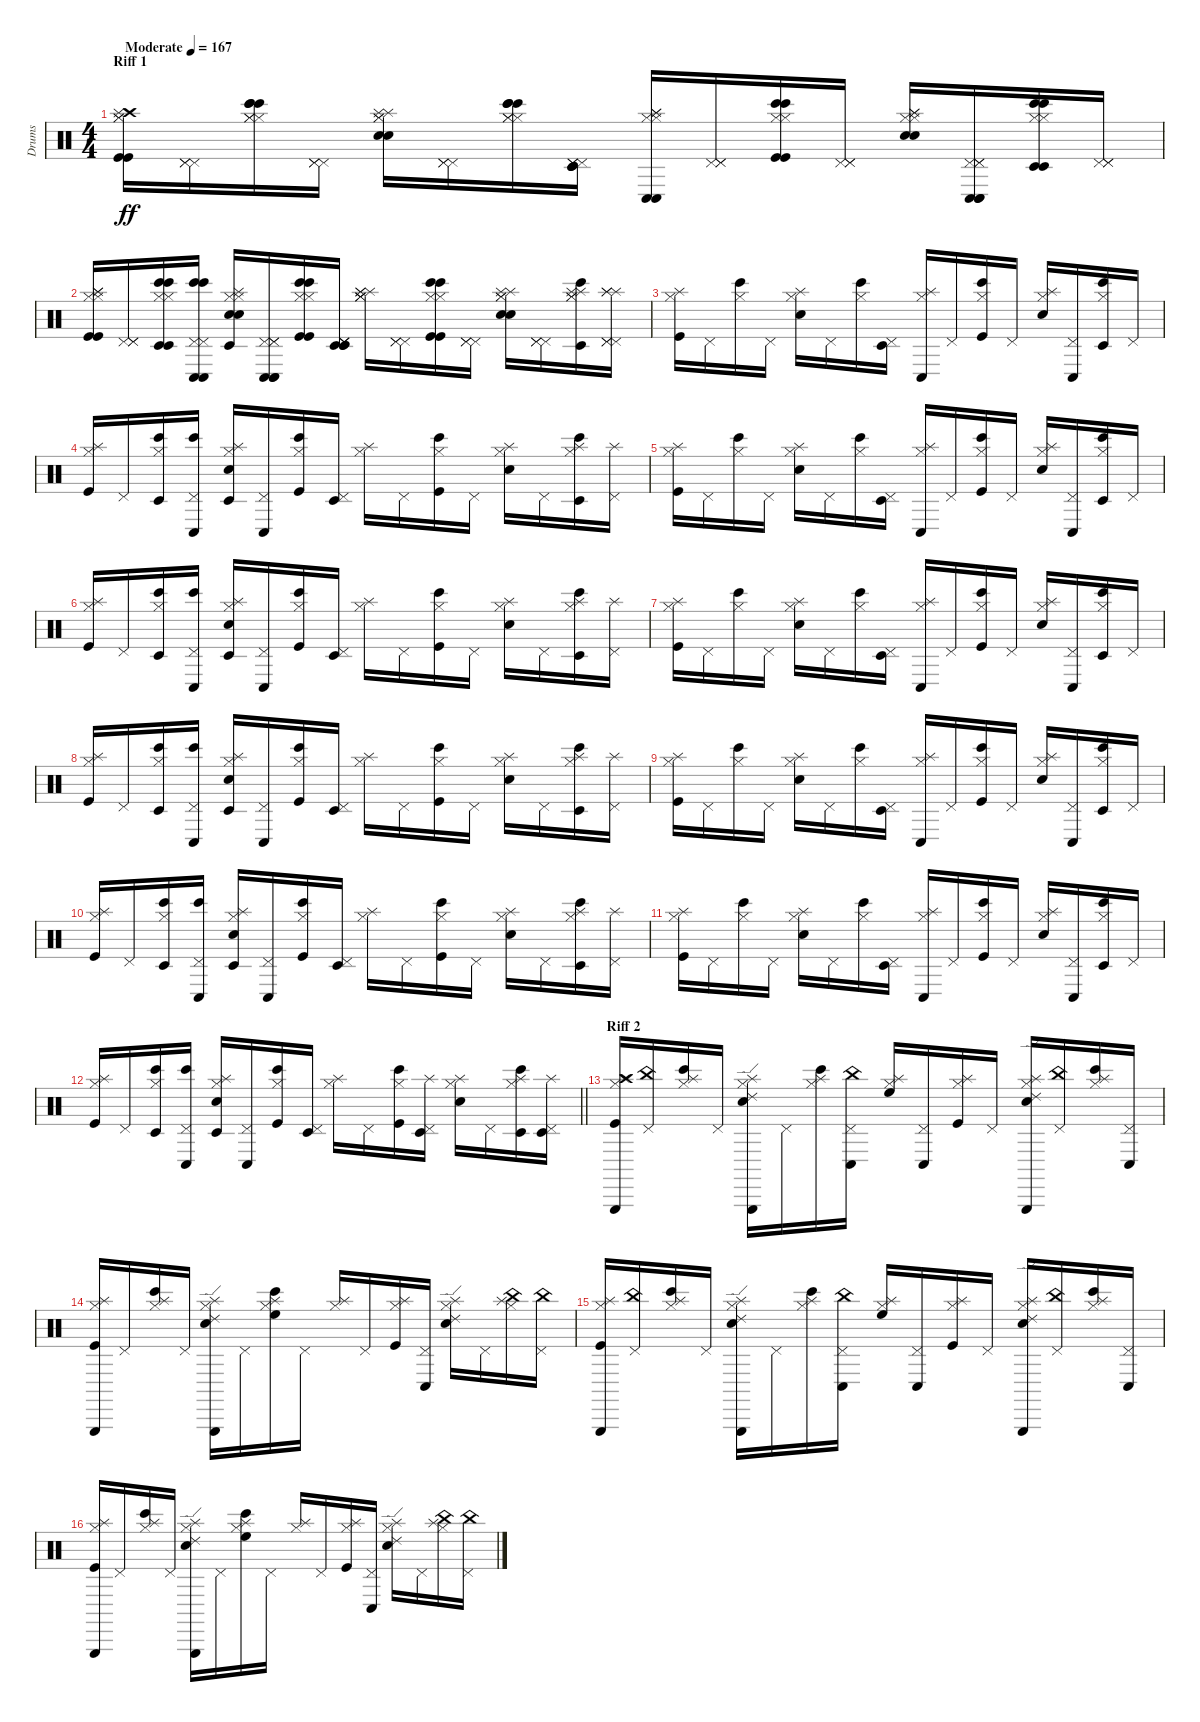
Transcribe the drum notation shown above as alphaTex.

\track ("Drums" "Drums") {instrument percussion}
\staff {score}
\articulation defaults
\ts (4 4)
\section ("" "Riff 1")
\tempo (167 "Moderate")
\clef neutral
\ks c
("Kick (hit)" "Hi-Hat (closed)" "Crash high (hit)" "Splash (hit)" "Kick (hit)" "Hi-Hat (closed)").16{dy ff} ("Pedal Hi-Hat (hit)" "Pedal Hi-Hat (hit)" "Pedal Hi-Hat (hit)").16 ("Hi-Hat (closed)" "Bongo High (hit)" "Hi-Hat (closed)" "Bongo High (hit)" "Hi-Hat (closed)" "Bongo High (hit)").16 ("Pedal Hi-Hat (hit)" "Pedal Hi-Hat (hit)" "Pedal Hi-Hat (hit)").16 ("Electric Snare (hit)" "Hi-Hat (closed)" "Splash (hit)" "Electric Snare (hit)" "Hi-Hat (closed)" "Splash (hit)").16 ("Pedal Hi-Hat (hit)" "Pedal Hi-Hat (hit)" "Pedal Hi-Hat (hit)").16 ("Hi-Hat (closed)" "Bongo High (hit)" "Hi-Hat (closed)" "Bongo High (hit)" "Hi-Hat (closed)" "Bongo High (hit)").16 ("Pedal Hi-Hat (hit)" "Timbale low (hit)" "Pedal Hi-Hat (hit)" "Timbale low (hit)" "Pedal Hi-Hat (hit)" "Timbale low (hit)").16 ("Hi-Hat (closed)" "Splash (hit)" "Conga low (hit)" "Hi-Hat (closed)" "Splash (hit)" "Conga low (hit)").16 ("Pedal Hi-Hat (hit)" "Pedal Hi-Hat (hit)" "Pedal Hi-Hat (hit)").16 ("Kick (hit)" "Hi-Hat (closed)" "Bongo High (hit)" "Kick (hit)" "Hi-Hat (closed)" "Bongo High (hit)").16 ("Pedal Hi-Hat (hit)" "Pedal Hi-Hat (hit)" "Pedal Hi-Hat (hit)").16 ("Electric Snare (hit)" "Hi-Hat (closed)" "Splash (hit)" "Electric Snare (hit)" "Hi-Hat (closed)" "Splash (hit)").16 ("Pedal Hi-Hat (hit)" "Conga low (hit)" "Pedal Hi-Hat (hit)" "Conga low (hit)" "Pedal Hi-Hat (hit)" "Conga low (hit)").16 ("Hi-Hat (closed)" "Bongo High (hit)" "Timbale low (hit)" "Hi-Hat (closed)" "Bongo High (hit)" "Timbale low (hit)").16 ("Pedal Hi-Hat (hit)" "Pedal Hi-Hat (hit)" "Pedal Hi-Hat (hit)").16 |
("Kick (hit)" "Hi-Hat (closed)" "Splash (hit)" "Kick (hit)" "Hi-Hat (closed)" "Splash (hit)").16 ("Pedal Hi-Hat (hit)" "Pedal Hi-Hat (hit)" "Pedal Hi-Hat (hit)").16 ("Hi-Hat (closed)" "Bongo High (hit)" "Timbale low (hit)" "Hi-Hat (closed)" "Bongo High (hit)" "Timbale low (hit)").16 ("Pedal Hi-Hat (hit)" "Bongo High (hit)" "Conga low (hit)" "Pedal Hi-Hat (hit)" "Bongo High (hit)" "Conga low (hit)").16 ("Electric Snare (hit)" "Hi-Hat (closed)" "Splash (hit)" "Timbale low (hit)" "Electric Snare (hit)" "Hi-Hat (closed)").16 ("Pedal Hi-Hat (hit)" "Conga low (hit)" "Pedal Hi-Hat (hit)" "Conga low (hit)" "Pedal Hi-Hat (hit)" "Conga low (hit)").16 ("Kick (hit)" "Hi-Hat (closed)" "Bongo High (hit)" "Kick (hit)" "Hi-Hat (closed)" "Bongo High (hit)").16 ("Pedal Hi-Hat (hit)" "Timbale low (hit)" "Pedal Hi-Hat (hit)" "Timbale low (hit)" "Pedal Hi-Hat (hit)" "Timbale low (hit)").16 ("Hi-Hat (closed)" "Splash (hit)" "Hi-Hat (closed)" "Splash (hit)" "Hi-Hat (closed)" "Splash (hit)").16 ("Pedal Hi-Hat (hit)" "Pedal Hi-Hat (hit)" "Pedal Hi-Hat (hit)").16 ("Kick (hit)" "Hi-Hat (closed)" "Bongo High (hit)" "Kick (hit)" "Hi-Hat (closed)" "Bongo High (hit)").16 ("Pedal Hi-Hat (hit)" "Pedal Hi-Hat (hit)" "Pedal Hi-Hat (hit)").16 ("Electric Snare (hit)" "Hi-Hat (closed)" "Splash (hit)" "Electric Snare (hit)" "Hi-Hat (closed)" "Splash (hit)").16 ("Pedal Hi-Hat (hit)" "Pedal Hi-Hat (hit)" "Pedal Hi-Hat (hit)").16 ("Hi-Hat (closed)" "Splash (hit)" "Bongo High (hit)" "Timbale low (hit)" "Hi-Hat (closed)" "Splash (hit)").16 ("Pedal Hi-Hat (hit)" "Splash (hit)" "Pedal Hi-Hat (hit)" "Splash (hit)" "Pedal Hi-Hat (hit)" "Splash (hit)").16 |
("Kick (hit)" "Hi-Hat (closed)" "Splash (hit)").16 "Pedal Hi-Hat (hit)".16 ("Hi-Hat (closed)" "Bongo High (hit)").16 "Pedal Hi-Hat (hit)".16 ("Electric Snare (hit)" "Hi-Hat (closed)" "Splash (hit)").16 "Pedal Hi-Hat (hit)".16 ("Hi-Hat (closed)" "Bongo High (hit)").16 ("Pedal Hi-Hat (hit)" "Timbale low (hit)").16 ("Hi-Hat (closed)" "Splash (hit)" "Conga low (hit)").16 "Pedal Hi-Hat (hit)".16 ("Kick (hit)" "Hi-Hat (closed)" "Bongo High (hit)").16 "Pedal Hi-Hat (hit)".16 ("Electric Snare (hit)" "Hi-Hat (closed)" "Splash (hit)").16 ("Pedal Hi-Hat (hit)" "Conga low (hit)").16 ("Hi-Hat (closed)" "Bongo High (hit)" "Timbale low (hit)").16 "Pedal Hi-Hat (hit)".16 |
("Kick (hit)" "Hi-Hat (closed)" "Splash (hit)").16 "Pedal Hi-Hat (hit)".16 ("Hi-Hat (closed)" "Bongo High (hit)" "Timbale low (hit)").16 ("Pedal Hi-Hat (hit)" "Bongo High (hit)" "Conga low (hit)").16 ("Electric Snare (hit)" "Hi-Hat (closed)" "Splash (hit)" "Timbale low (hit)").16 ("Pedal Hi-Hat (hit)" "Conga low (hit)").16 ("Kick (hit)" "Hi-Hat (closed)" "Bongo High (hit)").16 ("Pedal Hi-Hat (hit)" "Timbale low (hit)").16 ("Hi-Hat (closed)" "Splash (hit)").16 "Pedal Hi-Hat (hit)".16 ("Kick (hit)" "Hi-Hat (closed)" "Bongo High (hit)").16 "Pedal Hi-Hat (hit)".16 ("Electric Snare (hit)" "Hi-Hat (closed)" "Splash (hit)").16 "Pedal Hi-Hat (hit)".16 ("Hi-Hat (closed)" "Splash (hit)" "Bongo High (hit)" "Timbale low (hit)").16 ("Pedal Hi-Hat (hit)" "Splash (hit)").16 |
("Kick (hit)" "Hi-Hat (closed)" "Splash (hit)").16 "Pedal Hi-Hat (hit)".16 ("Hi-Hat (closed)" "Bongo High (hit)").16 "Pedal Hi-Hat (hit)".16 ("Electric Snare (hit)" "Hi-Hat (closed)" "Splash (hit)").16 "Pedal Hi-Hat (hit)".16 ("Hi-Hat (closed)" "Bongo High (hit)").16 ("Pedal Hi-Hat (hit)" "Timbale low (hit)").16 ("Hi-Hat (closed)" "Splash (hit)" "Conga low (hit)").16 "Pedal Hi-Hat (hit)".16 ("Kick (hit)" "Hi-Hat (closed)" "Bongo High (hit)").16 "Pedal Hi-Hat (hit)".16 ("Electric Snare (hit)" "Hi-Hat (closed)" "Splash (hit)").16 ("Pedal Hi-Hat (hit)" "Conga low (hit)").16 ("Hi-Hat (closed)" "Bongo High (hit)" "Timbale low (hit)").16 "Pedal Hi-Hat (hit)".16 |
("Kick (hit)" "Hi-Hat (closed)" "Splash (hit)").16 "Pedal Hi-Hat (hit)".16 ("Hi-Hat (closed)" "Bongo High (hit)" "Timbale low (hit)").16 ("Pedal Hi-Hat (hit)" "Bongo High (hit)" "Conga low (hit)").16 ("Electric Snare (hit)" "Hi-Hat (closed)" "Splash (hit)" "Timbale low (hit)").16 ("Pedal Hi-Hat (hit)" "Conga low (hit)").16 ("Kick (hit)" "Hi-Hat (closed)" "Bongo High (hit)").16 ("Pedal Hi-Hat (hit)" "Timbale low (hit)").16 ("Hi-Hat (closed)" "Splash (hit)").16 "Pedal Hi-Hat (hit)".16 ("Kick (hit)" "Hi-Hat (closed)" "Bongo High (hit)").16 "Pedal Hi-Hat (hit)".16 ("Electric Snare (hit)" "Hi-Hat (closed)" "Splash (hit)").16 "Pedal Hi-Hat (hit)".16 ("Hi-Hat (closed)" "Splash (hit)" "Bongo High (hit)" "Timbale low (hit)").16 ("Pedal Hi-Hat (hit)" "Splash (hit)").16 |
("Kick (hit)" "Hi-Hat (closed)" "Splash (hit)").16 "Pedal Hi-Hat (hit)".16 ("Hi-Hat (closed)" "Bongo High (hit)").16 "Pedal Hi-Hat (hit)".16 ("Electric Snare (hit)" "Hi-Hat (closed)" "Splash (hit)").16 "Pedal Hi-Hat (hit)".16 ("Hi-Hat (closed)" "Bongo High (hit)").16 ("Pedal Hi-Hat (hit)" "Timbale low (hit)").16 ("Hi-Hat (closed)" "Splash (hit)" "Conga low (hit)").16 "Pedal Hi-Hat (hit)".16 ("Kick (hit)" "Hi-Hat (closed)" "Bongo High (hit)").16 "Pedal Hi-Hat (hit)".16 ("Electric Snare (hit)" "Hi-Hat (closed)" "Splash (hit)").16 ("Pedal Hi-Hat (hit)" "Conga low (hit)").16 ("Hi-Hat (closed)" "Bongo High (hit)" "Timbale low (hit)").16 "Pedal Hi-Hat (hit)".16 |
("Kick (hit)" "Hi-Hat (closed)" "Splash (hit)").16 "Pedal Hi-Hat (hit)".16 ("Hi-Hat (closed)" "Bongo High (hit)" "Timbale low (hit)").16 ("Pedal Hi-Hat (hit)" "Bongo High (hit)" "Conga low (hit)").16 ("Electric Snare (hit)" "Hi-Hat (closed)" "Splash (hit)" "Timbale low (hit)").16 ("Pedal Hi-Hat (hit)" "Conga low (hit)").16 ("Kick (hit)" "Hi-Hat (closed)" "Bongo High (hit)").16 ("Pedal Hi-Hat (hit)" "Timbale low (hit)").16 ("Hi-Hat (closed)" "Splash (hit)").16 "Pedal Hi-Hat (hit)".16 ("Kick (hit)" "Hi-Hat (closed)" "Bongo High (hit)").16 "Pedal Hi-Hat (hit)".16 ("Electric Snare (hit)" "Hi-Hat (closed)" "Splash (hit)").16 "Pedal Hi-Hat (hit)".16 ("Hi-Hat (closed)" "Splash (hit)" "Bongo High (hit)" "Timbale low (hit)").16 ("Pedal Hi-Hat (hit)" "Splash (hit)").16 |
("Kick (hit)" "Hi-Hat (closed)" "Splash (hit)").16 "Pedal Hi-Hat (hit)".16 ("Hi-Hat (closed)" "Bongo High (hit)").16 "Pedal Hi-Hat (hit)".16 ("Electric Snare (hit)" "Hi-Hat (closed)" "Splash (hit)").16 "Pedal Hi-Hat (hit)".16 ("Hi-Hat (closed)" "Bongo High (hit)").16 ("Pedal Hi-Hat (hit)" "Timbale low (hit)").16 ("Hi-Hat (closed)" "Splash (hit)" "Conga low (hit)").16 "Pedal Hi-Hat (hit)".16 ("Kick (hit)" "Hi-Hat (closed)" "Bongo High (hit)").16 "Pedal Hi-Hat (hit)".16 ("Electric Snare (hit)" "Hi-Hat (closed)" "Splash (hit)").16 ("Pedal Hi-Hat (hit)" "Conga low (hit)").16 ("Hi-Hat (closed)" "Bongo High (hit)" "Timbale low (hit)").16 "Pedal Hi-Hat (hit)".16 |
("Kick (hit)" "Hi-Hat (closed)" "Splash (hit)").16 "Pedal Hi-Hat (hit)".16 ("Hi-Hat (closed)" "Bongo High (hit)" "Timbale low (hit)").16 ("Pedal Hi-Hat (hit)" "Bongo High (hit)" "Conga low (hit)").16 ("Electric Snare (hit)" "Hi-Hat (closed)" "Splash (hit)" "Timbale low (hit)").16 ("Pedal Hi-Hat (hit)" "Conga low (hit)").16 ("Kick (hit)" "Hi-Hat (closed)" "Bongo High (hit)").16 ("Pedal Hi-Hat (hit)" "Timbale low (hit)").16 ("Hi-Hat (closed)" "Splash (hit)").16 "Pedal Hi-Hat (hit)".16 ("Kick (hit)" "Hi-Hat (closed)" "Bongo High (hit)").16 "Pedal Hi-Hat (hit)".16 ("Electric Snare (hit)" "Hi-Hat (closed)" "Splash (hit)").16 "Pedal Hi-Hat (hit)".16 ("Hi-Hat (closed)" "Splash (hit)" "Bongo High (hit)" "Timbale low (hit)").16 ("Pedal Hi-Hat (hit)" "Splash (hit)").16 |
("Kick (hit)" "Hi-Hat (closed)" "Splash (hit)").16 "Pedal Hi-Hat (hit)".16 ("Hi-Hat (closed)" "Bongo High (hit)").16 "Pedal Hi-Hat (hit)".16 ("Electric Snare (hit)" "Hi-Hat (closed)" "Splash (hit)").16 "Pedal Hi-Hat (hit)".16 ("Hi-Hat (closed)" "Bongo High (hit)").16 ("Pedal Hi-Hat (hit)" "Timbale low (hit)").16 ("Hi-Hat (closed)" "Splash (hit)" "Conga low (hit)").16 "Pedal Hi-Hat (hit)".16 ("Kick (hit)" "Hi-Hat (closed)" "Bongo High (hit)").16 "Pedal Hi-Hat (hit)".16 ("Electric Snare (hit)" "Hi-Hat (closed)" "Splash (hit)").16 ("Pedal Hi-Hat (hit)" "Conga low (hit)").16 ("Hi-Hat (closed)" "Bongo High (hit)" "Timbale low (hit)").16 "Pedal Hi-Hat (hit)".16 |
\barLineRight lightlight
("Kick (hit)" "Hi-Hat (closed)" "Splash (hit)").16 "Pedal Hi-Hat (hit)".16 ("Hi-Hat (closed)" "Bongo High (hit)" "Timbale low (hit)").16 ("Pedal Hi-Hat (hit)" "Bongo High (hit)" "Conga low (hit)").16 ("Electric Snare (hit)" "Hi-Hat (closed)" "Splash (hit)" "Timbale low (hit)").16 ("Pedal Hi-Hat (hit)" "Conga low (hit)").16 ("Kick (hit)" "Hi-Hat (closed)" "Bongo High (hit)").16 ("Pedal Hi-Hat (hit)" "Timbale low (hit)").16 ("Hi-Hat (closed)" "Splash (hit)").16 "Pedal Hi-Hat (hit)".16 ("Kick (hit)" "Hi-Hat (closed)" "Bongo High (hit)").16 ("Pedal Hi-Hat (hit)" "Splash (hit)" "Timbale low (hit)").16 ("Electric Snare (hit)" "Hi-Hat (closed)" "Splash (hit)").16 "Pedal Hi-Hat (hit)".16 ("Hi-Hat (closed)" "Splash (hit)" "Bongo High (hit)" "Timbale low (hit)").16 ("Pedal Hi-Hat (hit)" "Splash (hit)" "Timbale low (hit)").16 |
\section ("" "Riff 2")
("Kick (hit)" "Hi-Hat (closed)" "Crash high (hit)" "Splash (hit)" "Triangle (hit)").16 ("Pedal Hi-Hat (hit)" "China (hit)").16 ("Hi-Hat (closed)" "Splash (hit)" "Bongo High (hit)").16 "Pedal Hi-Hat (hit)".16 ("Electric Snare (hit)" "Hi-Hat (closed)" "Splash (hit)" "Ride (edge) 2" "Triangle (hit)").16 "Pedal Hi-Hat (hit)".16 ("Hi-Hat (closed)" "Splash (hit)" "Bongo High (hit)").16 ("Pedal Hi-Hat (hit)" "China (hit)" "Conga low (hit)").16 ("Hi-Hat (closed)" "High Floor Tom (hit)" "Splash (hit)").16 ("Pedal Hi-Hat (hit)" "Conga low (hit)").16 ("Kick (hit)" "Hi-Hat (closed)" "Splash (hit)").16 "Pedal Hi-Hat (hit)".16 ("Electric Snare (hit)" "Hi-Hat (closed)" "Splash (hit)" "Ride (edge) 2" "Triangle (hit)").16 ("Pedal Hi-Hat (hit)" "China (hit)").16 ("Hi-Hat (closed)" "Splash (hit)" "Bongo High (hit)").16 ("Pedal Hi-Hat (hit)" "Conga low (hit)").16 |
("Kick (hit)" "Hi-Hat (closed)" "Splash (hit)" "Triangle (hit)").16 "Pedal Hi-Hat (hit)".16 ("Hi-Hat (closed)" "Splash (hit)" "Bongo High (hit)").16 "Pedal Hi-Hat (hit)".16 ("Electric Snare (hit)" "Hi-Hat (closed)" "Splash (hit)" "Ride (edge) 2" "Triangle (hit)").16 "Pedal Hi-Hat (hit)".16 ("Hi-Hat (closed)" "High Floor Tom (hit)" "Splash (hit)" "Bongo High (hit)").16 "Pedal Hi-Hat (hit)".16 ("Hi-Hat (closed)" "Splash (hit)").16 "Pedal Hi-Hat (hit)".16 ("Kick (hit)" "Hi-Hat (closed)" "Splash (hit)").16 ("Pedal Hi-Hat (hit)" "Conga low (hit)").16 ("Electric Snare (hit)" "Hi-Hat (closed)" "Splash (hit)" "Ride (edge) 2").16 "Pedal Hi-Hat (hit)".16 ("Hi-Hat (closed)" "China (hit)" "Splash (hit)").16 ("Pedal Hi-Hat (hit)" "China (hit)").16 |
("Kick (hit)" "Hi-Hat (closed)" "Splash (hit)" "Triangle (hit)").16 ("Pedal Hi-Hat (hit)" "China (hit)").16 ("Hi-Hat (closed)" "Splash (hit)" "Bongo High (hit)").16 "Pedal Hi-Hat (hit)".16 ("Electric Snare (hit)" "Hi-Hat (closed)" "Splash (hit)" "Ride (edge) 2" "Triangle (hit)").16 "Pedal Hi-Hat (hit)".16 ("Hi-Hat (closed)" "Splash (hit)" "Bongo High (hit)").16 ("Pedal Hi-Hat (hit)" "China (hit)" "Conga low (hit)").16 ("Hi-Hat (closed)" "High Floor Tom (hit)" "Splash (hit)").16 ("Pedal Hi-Hat (hit)" "Conga low (hit)").16 ("Kick (hit)" "Hi-Hat (closed)" "Splash (hit)").16 "Pedal Hi-Hat (hit)".16 ("Electric Snare (hit)" "Hi-Hat (closed)" "Splash (hit)" "Ride (edge) 2" "Triangle (hit)").16 ("Pedal Hi-Hat (hit)" "China (hit)").16 ("Hi-Hat (closed)" "Splash (hit)" "Bongo High (hit)").16 ("Pedal Hi-Hat (hit)" "Conga low (hit)").16 |
("Kick (hit)" "Hi-Hat (closed)" "Splash (hit)" "Triangle (hit)").16 "Pedal Hi-Hat (hit)".16 ("Hi-Hat (closed)" "Splash (hit)" "Bongo High (hit)").16 "Pedal Hi-Hat (hit)".16 ("Electric Snare (hit)" "Hi-Hat (closed)" "Splash (hit)" "Ride (edge) 2" "Triangle (hit)").16 "Pedal Hi-Hat (hit)".16 ("Hi-Hat (closed)" "High Floor Tom (hit)" "Splash (hit)" "Bongo High (hit)").16 "Pedal Hi-Hat (hit)".16 ("Hi-Hat (closed)" "Splash (hit)").16 "Pedal Hi-Hat (hit)".16 ("Kick (hit)" "Hi-Hat (closed)" "Splash (hit)").16 ("Pedal Hi-Hat (hit)" "Conga low (hit)").16 ("Electric Snare (hit)" "Hi-Hat (closed)" "Splash (hit)" "Ride (edge) 2").16 "Pedal Hi-Hat (hit)".16 ("Hi-Hat (closed)" "China (hit)" "Splash (hit)").16 ("Pedal Hi-Hat (hit)" "China (hit)").16
